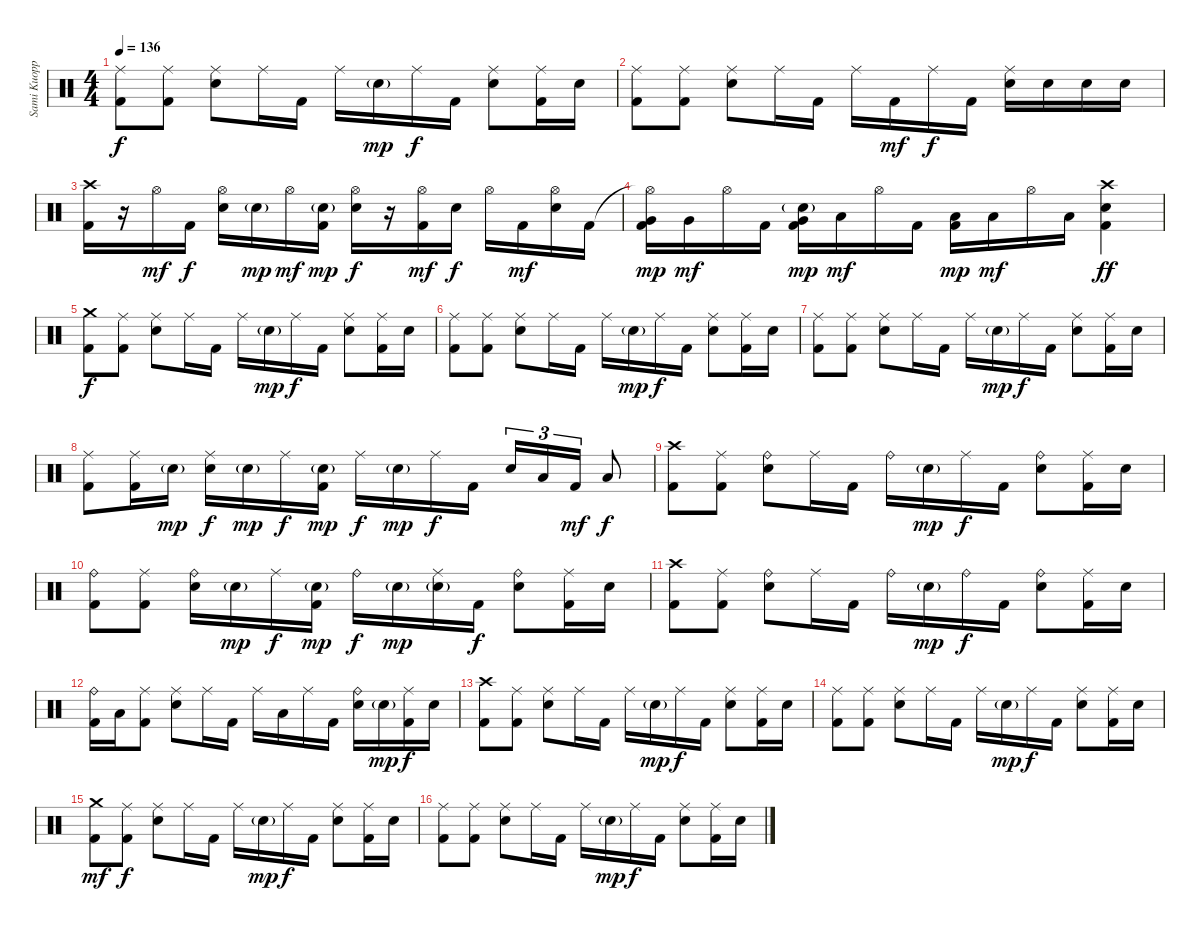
\track ("Sami Kuoppamäki - Drums" "Sami Kuopp") {instrument percussion}
\staff {score}
\articulation defaults
\ts (4 4)
\tempo 136
\clef neutral
\ks c
("Ride (middle)" "Kick (hit) 2").8{dy f} ("Ride (middle)" "Kick (hit) 2").8 ("Ride (middle)" "Snare (hit) 2").8 "Ride (middle)".16 "Kick (hit) 2".16 "Ride (middle)".16 "Snare (hit) 2"{g}.16{dy mp} "Ride (middle)".16{dy f} "Kick (hit) 2".16 ("Ride (middle)" "Snare (hit) 2").8 ("Ride (middle)" "Kick (hit) 2").16 "Snare (hit) 2".16 |
("Ride (middle)" "Kick (hit) 2").8 ("Ride (middle)" "Kick (hit) 2").8 ("Ride (middle)" "Snare (hit) 2").8 "Ride (middle)".16 "Kick (hit) 2".16 "Ride (middle)".16 "Kick (hit) 2".16{dy mf} "Ride (middle)".16{dy f} "Kick (hit) 2".16 ("Ride (middle)" "Snare (hit) 2").16 "Snare (hit) 2".16 "Snare (hit) 2".16 "Snare (hit) 2".16 |
("Crash high (hit)" "Kick (hit) 2").16 r.16 "Hi-Hat (open)".16{dy mf} "Kick (hit) 2".16{dy f} ("Hi-Hat (open)" "Snare (hit) 2").16 "Snare (hit) 2"{g}.16{dy mp} "Hi-Hat (open)".16{dy mf} ("Snare (hit) 2"{g} "Kick (hit) 2").16{dy mp} ("Hi-Hat (open)" "Snare (hit) 2").16{dy f} r.16 ("Hi-Hat (open)" "Kick (hit) 2").16{dy mf} "Snare (hit) 2".16{dy f} "Hi-Hat (open)".16 "Kick (hit) 2".16{dy mf} ("Hi-Hat (open)" "Snare (hit) 2").16 "Kick (hit) 2".16 |
("Hi-Hat (open)"{t} "Very Low Tom (hit)" "Kick (hit) 2").16{dy mp} "Very Low Tom (hit)".16{dy mf} "Hi-Hat (open)".16 "Kick (hit) 2".16 ("Very Low Tom (hit)" "Snare (hit) 2"{g} "Kick (hit) 2").16{dy mp} "Low Floor Tom (hit)".16{dy mf} "Hi-Hat (open)".16 "Kick (hit) 2".16 ("Low Floor Tom (hit)" "Kick (hit) 2").16{dy mp} "Low Floor Tom (hit)".16{dy mf} "Hi-Hat (open)".16 "Low Floor Tom (hit)".16 ("Crash high (hit)" "Snare (hit) 2" "Kick (hit) 2").4{dy ff} |
("Crash medium (hit)" "Kick (hit) 2").8{dy f} ("Ride (middle)" "Kick (hit) 2").8 ("Ride (middle)" "Snare (hit) 2").8 "Ride (middle)".16 "Kick (hit) 2".16 "Ride (middle)".16 "Snare (hit) 2"{g}.16{dy mp} "Ride (middle)".16{dy f} "Kick (hit) 2".16 ("Ride (middle)" "Snare (hit) 2").8 ("Ride (middle)" "Kick (hit) 2").16 "Snare (hit) 2".16 |
("Ride (middle)" "Kick (hit) 2").8 ("Ride (middle)" "Kick (hit) 2").8 ("Ride (middle)" "Snare (hit) 2").8 "Ride (middle)".16 "Kick (hit) 2".16 "Ride (middle)".16 "Snare (hit) 2"{g}.16{dy mp} "Ride (middle)".16{dy f} "Kick (hit) 2".16 ("Ride (middle)" "Snare (hit) 2").8 ("Ride (middle)" "Kick (hit) 2").16 "Snare (hit) 2".16 |
("Ride (middle)" "Kick (hit) 2").8 ("Ride (middle)" "Kick (hit) 2").8 ("Ride (middle)" "Snare (hit) 2").8 "Ride (middle)".16 "Kick (hit) 2".16 "Ride (middle)".16 "Snare (hit) 2"{g}.16{dy mp} "Ride (middle)".16{dy f} "Kick (hit) 2".16 ("Ride (middle)" "Snare (hit) 2").8 ("Ride (middle)" "Kick (hit) 2").16 "Snare (hit) 2".16 |
("Ride (middle)" "Kick (hit) 2").8 ("Ride (middle)" "Kick (hit) 2").16 "Snare (hit) 2"{g}.16{dy mp} ("Ride (middle)" "Snare (hit) 2").16{dy f} "Snare (hit) 2"{g}.16{dy mp} "Ride (middle)".16{dy f} ("Snare (hit) 2"{g} "Kick (hit) 2").16{dy mp} "Ride (middle)".16{dy f} "Snare (hit) 2"{g}.16{dy mp} "Ride (middle)".16{dy f} "Kick (hit) 2".16 "Snare (hit) 2".16{tu (3 2)} "Low Tom (hit)".16{tu (3 2)} "Kick (hit) 2".16{tu (3 2) dy mf} "Low Floor Tom (hit)".8{dy f} |
("Crash high (hit)" "Kick (hit) 2").8 ("Ride (middle)" "Kick (hit) 2").8 ("Ride (bell)" "Snare (hit) 2").8 "Ride (middle)".16 "Kick (hit) 2".16 "Ride (bell)".16 "Snare (hit) 2"{g}.16{dy mp} "Ride (middle)".16{dy f} "Kick (hit) 2".16 ("Ride (bell)" "Snare (hit) 2").8 ("Ride (middle)" "Kick (hit) 2").16 "Snare (hit) 2".16 |
("Ride (bell)" "Kick (hit) 2").8 ("Ride (middle)" "Kick (hit) 2").8 ("Ride (bell)" "Snare (hit) 2").16 "Snare (hit) 2"{g}.16{dy mp} "Ride (middle)".16{dy f} ("Snare (hit) 2"{g} "Kick (hit) 2").16{dy mp} "Ride (bell)".16{dy f} "Snare (hit) 2"{g}.16{dy mp} ("Ride (middle)" "Snare (hit) 2"{g}).16 "Kick (hit) 2".16{dy f} ("Ride (bell)" "Snare (hit) 2").8 ("Ride (middle)" "Kick (hit) 2").16 "Snare (hit) 2".16 |
("Crash high (hit)" "Kick (hit) 2").8 ("Ride (middle)" "Kick (hit) 2").8 ("Ride (bell)" "Snare (hit) 2").8 "Ride (middle)".16 "Kick (hit) 2".16 "Ride (bell)".16 "Snare (hit) 2"{g}.16{dy mp} "Ride (bell)".16{dy f} "Kick (hit) 2".16 ("Ride (bell)" "Snare (hit) 2").8 ("Ride (middle)" "Kick (hit) 2").16 "Snare (hit) 2".16 |
("Ride (bell)" "Kick (hit) 2").16 "Low Tom (hit)".16 ("Ride (middle)" "Kick (hit) 2").8 ("Ride (middle)" "Snare (hit) 2").8 "Ride (middle)".16 "Kick (hit) 2".16 "Ride (middle)".16 "Low Tom (hit)".16 "Ride (middle)".16 "Kick (hit) 2".16 ("Ride (bell)" "Snare (hit) 2").16 "Snare (hit) 2"{g}.16{dy mp} ("Ride (middle)" "Kick (hit) 2").16{dy f} "Snare (hit) 2".16 |
("Crash high (hit)" "Kick (hit) 2").8 ("Ride (middle)" "Kick (hit) 2").8 ("Ride (middle)" "Snare (hit) 2").8 "Ride (middle)".16 "Kick (hit) 2".16 "Ride (middle)".16 "Snare (hit) 2"{g}.16{dy mp} "Ride (middle)".16{dy f} "Kick (hit) 2".16 ("Ride (middle)" "Snare (hit) 2").8 ("Ride (middle)" "Kick (hit) 2").16 "Snare (hit) 2".16 |
("Ride (middle)" "Kick (hit) 2").8 ("Ride (middle)" "Kick (hit) 2").8 ("Ride (middle)" "Snare (hit) 2").8 "Ride (middle)".16 "Kick (hit) 2".16 "Ride (middle)".16 "Snare (hit) 2"{g}.16{dy mp} "Ride (middle)".16{dy f} "Kick (hit) 2".16 ("Ride (middle)" "Snare (hit) 2").8 ("Ride (middle)" "Kick (hit) 2").16 "Snare (hit) 2".16 |
("Crash medium (hit)" "Kick (hit) 2").8{dy mf} ("Ride (middle)" "Kick (hit) 2").8{dy f} ("Ride (middle)" "Snare (hit) 2").8 "Ride (middle)".16 "Kick (hit) 2".16 "Ride (middle)".16 "Snare (hit) 2"{g}.16{dy mp} "Ride (middle)".16{dy f} "Kick (hit) 2".16 ("Ride (middle)" "Snare (hit) 2").8 ("Ride (middle)" "Kick (hit) 2").16 "Snare (hit) 2".16 |
("Ride (middle)" "Kick (hit) 2").8 ("Ride (middle)" "Kick (hit) 2").8 ("Ride (middle)" "Snare (hit) 2").8 "Ride (middle)".16 "Kick (hit) 2".16 "Ride (middle)".16 "Snare (hit) 2"{g}.16{dy mp} "Ride (middle)".16{dy f} "Kick (hit) 2".16 ("Ride (middle)" "Snare (hit) 2").8 ("Ride (middle)" "Kick (hit) 2").16 "Snare (hit) 2".16
